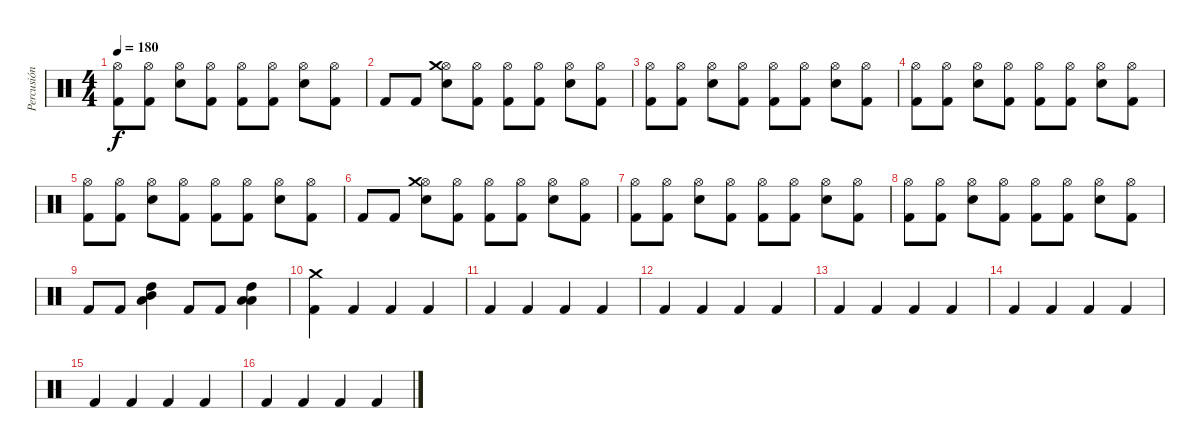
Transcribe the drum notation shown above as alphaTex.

\track ("Percusión" "Percusión") {instrument percussion}
\staff {score}
\articulation defaults
\ts (4 4)
\tempo 180
\clef neutral
\ks c
("Kick (hit) 2" "Hi-Hat (open)").8{dy f} ("Kick (hit) 2" "Hi-Hat (open)").8 ("Electric Snare (hit)" "Hi-Hat (open)").8 ("Kick (hit) 2" "Hi-Hat (open)").8 ("Kick (hit) 2" "Hi-Hat (open)").8 ("Kick (hit) 2" "Hi-Hat (open)").8 ("Electric Snare (hit)" "Hi-Hat (open)").8 ("Kick (hit) 2" "Hi-Hat (open)").8 |
"Kick (hit) 2".8 "Kick (hit) 2".8 ("Electric Snare (hit)" "Hi-Hat (open)" "Crash medium (hit)").8 ("Kick (hit) 2" "Hi-Hat (open)").8 ("Kick (hit) 2" "Hi-Hat (open)").8 ("Kick (hit) 2" "Hi-Hat (open)").8 ("Electric Snare (hit)" "Hi-Hat (open)").8 ("Kick (hit) 2" "Hi-Hat (open)").8 |
("Kick (hit) 2" "Hi-Hat (open)").8 ("Kick (hit) 2" "Hi-Hat (open)").8 ("Electric Snare (hit)" "Hi-Hat (open)").8 ("Kick (hit) 2" "Hi-Hat (open)").8 ("Kick (hit) 2" "Hi-Hat (open)").8 ("Kick (hit) 2" "Hi-Hat (open)").8 ("Electric Snare (hit)" "Hi-Hat (open)").8 ("Kick (hit) 2" "Hi-Hat (open)").8 |
("Kick (hit) 2" "Hi-Hat (open)").8 ("Kick (hit) 2" "Hi-Hat (open)").8 ("Electric Snare (hit)" "Hi-Hat (open)").8 ("Kick (hit) 2" "Hi-Hat (open)").8 ("Kick (hit) 2" "Hi-Hat (open)").8 ("Kick (hit) 2" "Hi-Hat (open)").8 ("Electric Snare (hit)" "Hi-Hat (open)").8 ("Kick (hit) 2" "Hi-Hat (open)").8 |
("Kick (hit) 2" "Hi-Hat (open)").8 ("Kick (hit) 2" "Hi-Hat (open)").8 ("Electric Snare (hit)" "Hi-Hat (open)").8 ("Kick (hit) 2" "Hi-Hat (open)").8 ("Kick (hit) 2" "Hi-Hat (open)").8 ("Kick (hit) 2" "Hi-Hat (open)").8 ("Electric Snare (hit)" "Hi-Hat (open)").8 ("Kick (hit) 2" "Hi-Hat (open)").8 |
"Kick (hit) 2".8 "Kick (hit) 2".8 ("Electric Snare (hit)" "Hi-Hat (open)" "Crash medium (hit)").8 ("Kick (hit) 2" "Hi-Hat (open)").8 ("Kick (hit) 2" "Hi-Hat (open)").8 ("Kick (hit) 2" "Hi-Hat (open)").8 ("Electric Snare (hit)" "Hi-Hat (open)").8 ("Kick (hit) 2" "Hi-Hat (open)").8 |
("Kick (hit) 2" "Hi-Hat (open)").8 ("Kick (hit) 2" "Hi-Hat (open)").8 ("Electric Snare (hit)" "Hi-Hat (open)").8 ("Kick (hit) 2" "Hi-Hat (open)").8 ("Kick (hit) 2" "Hi-Hat (open)").8 ("Kick (hit) 2" "Hi-Hat (open)").8 ("Electric Snare (hit)" "Hi-Hat (open)").8 ("Kick (hit) 2" "Hi-Hat (open)").8 |
("Kick (hit) 2" "Hi-Hat (open)").8 ("Kick (hit) 2" "Hi-Hat (open)").8 ("Electric Snare (hit)" "Hi-Hat (open)").8 ("Kick (hit) 2" "Hi-Hat (open)").8 ("Kick (hit) 2" "Hi-Hat (open)").8 ("Kick (hit) 2" "Hi-Hat (open)").8 ("Electric Snare (hit)" "Hi-Hat (open)").8 ("Kick (hit) 2" "Hi-Hat (open)").8 |
"Kick (hit) 2".8 "Kick (hit) 2".8 ("Mid Tom (hit)" "Low Tom (hit)" "High Tom (hit)").4 "Kick (hit) 2".8 "Kick (hit) 2".8 ("Low Tom (hit)" "Low Tom (hit)" "High Tom (hit)").4 |
("Kick (hit) 2" "Crash medium (hit)").4 "Kick (hit) 2".4 "Kick (hit) 2".4 "Kick (hit) 2".4 |
"Kick (hit) 2".4 "Kick (hit) 2".4 "Kick (hit) 2".4 "Kick (hit) 2".4 |
"Kick (hit) 2".4 "Kick (hit) 2".4 "Kick (hit) 2".4 "Kick (hit) 2".4 |
"Kick (hit) 2".4 "Kick (hit) 2".4 "Kick (hit) 2".4 "Kick (hit) 2".4 |
"Kick (hit) 2".4 "Kick (hit) 2".4 "Kick (hit) 2".4 "Kick (hit) 2".4 |
"Kick (hit) 2".4 "Kick (hit) 2".4 "Kick (hit) 2".4 "Kick (hit) 2".4 |
"Kick (hit) 2".4 "Kick (hit) 2".4 "Kick (hit) 2".4 "Kick (hit) 2".4
